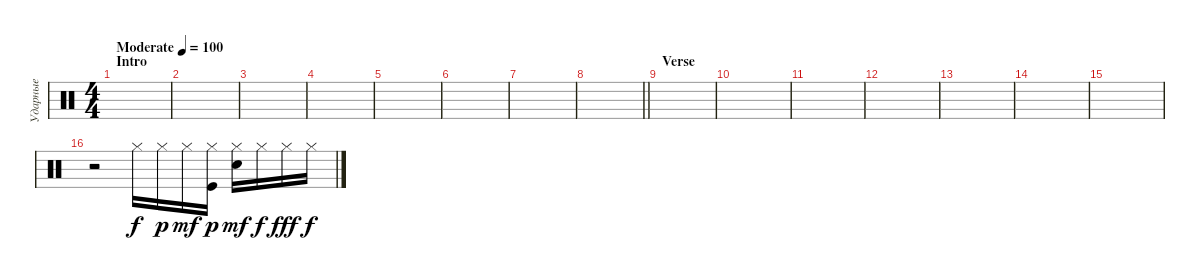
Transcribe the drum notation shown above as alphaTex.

\track ("Ударные" "Ударные") {instrument percussion}
\staff {score}
\articulation defaults
\ts (4 4)
\section ("" "Intro")
\tempo (100 "Moderate")
\clef neutral
\ks c
|
|
|
|
|
|
|
\barLineRight lightlight
|
\section ("" "Verse")
|
|
|
|
|
|
|
r.2 "Hi-Hat (closed)".16 "Hi-Hat (closed)".16{dy p} "Hi-Hat (closed)".16{dy mf} ("Hi-Hat (closed)" "Kick (hit)").16{dy p} ("Hi-Hat (closed)" "Snare (hit) 2").16{dy mf} "Hi-Hat (closed)".16{dy f} "Hi-Hat (closed)".16{dy fff} "Hi-Hat (closed)".16{dy f}
